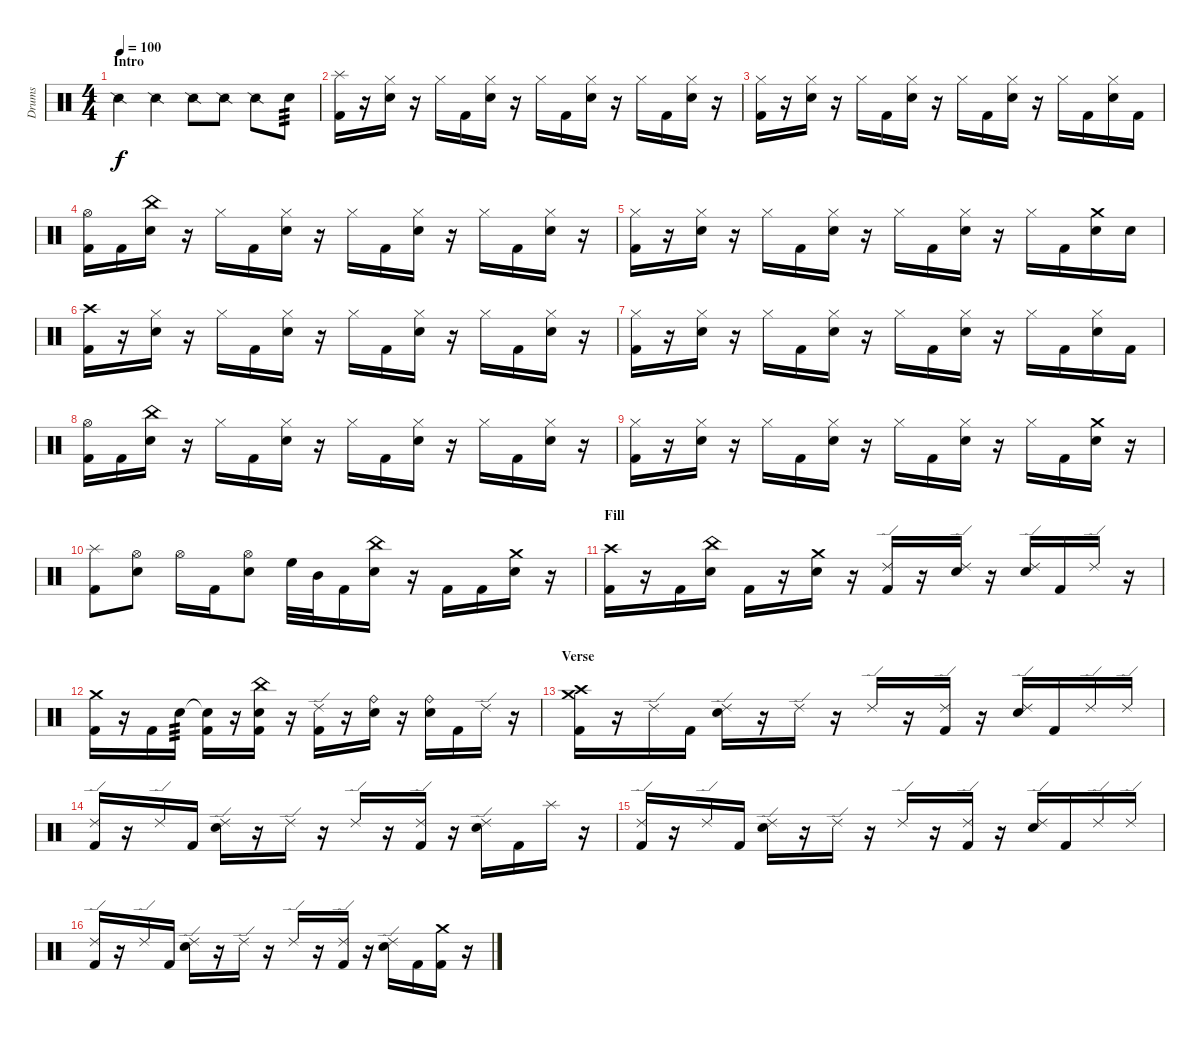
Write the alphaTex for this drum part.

\track ("Drums" "Drums") {instrument percussion}
\staff {score}
\articulation defaults
\ts (4 4)
\section ("" "Intro")
\tempo 100
\clef neutral
\ks c "Snare (side stick) 2".4{dy f} "Snare (side stick) 2".4 "Snare (side stick) 2".8 "Snare (side stick) 2".8 "Snare (side stick) 2".8 "Electric Snare (hit)".8{tp 3}
|
("Splash (hit)" "Kick (hit) 2").16 r.16 ("Hi-Hat (closed)" "Electric Snare (hit)").16 r.16 "Hi-Hat (closed)".16 "Kick (hit) 2".16 ("Hi-Hat (closed)" "Electric Snare (hit)").16 r.16 "Hi-Hat (closed)".16 "Kick (hit) 2".16 ("Hi-Hat (closed)" "Electric Snare (hit)").16 r.16 "Hi-Hat (closed)".16 "Kick (hit) 2".16 ("Hi-Hat (closed)" "Electric Snare (hit)").16 r.16 |
("Hi-Hat (closed)" "Kick (hit) 2").16 r.16 ("Hi-Hat (closed)" "Electric Snare (hit)").16 r.16 "Hi-Hat (closed)".16 "Kick (hit) 2".16 ("Hi-Hat (closed)" "Electric Snare (hit)").16 r.16 "Hi-Hat (closed)".16 "Kick (hit) 2".16 ("Hi-Hat (closed)" "Electric Snare (hit)").16 r.16 "Hi-Hat (closed)".16 "Kick (hit) 2".16 ("Hi-Hat (closed)" "Electric Snare (hit)").16 "Kick (hit) 2".16 |
("Hi-Hat (open)" "Kick (hit) 2").16 "Kick (hit) 2".16 ("China (hit)" "Electric Snare (hit)").16 r.16 "Hi-Hat (closed)".16 "Kick (hit) 2".16 ("Hi-Hat (closed)" "Electric Snare (hit)").16 r.16 "Hi-Hat (closed)".16 "Kick (hit) 2".16 ("Hi-Hat (closed)" "Electric Snare (hit)").16 r.16 "Hi-Hat (closed)".16 "Kick (hit) 2".16 ("Hi-Hat (closed)" "Electric Snare (hit)").16 r.16 |
("Hi-Hat (closed)" "Kick (hit) 2").16 r.16 ("Hi-Hat (closed)" "Electric Snare (hit)").16 r.16 "Hi-Hat (closed)".16 "Kick (hit) 2".16 ("Hi-Hat (closed)" "Electric Snare (hit)").16 r.16 "Hi-Hat (closed)".16 "Kick (hit) 2".16 ("Hi-Hat (closed)" "Electric Snare (hit)").16 r.16 "Hi-Hat (closed)".16 "Kick (hit) 2".16 ("Crash medium (hit)" "Electric Snare (hit)").16 "Electric Snare (hit)".16 |
("Crash high (hit)" "Kick (hit) 2").16 r.16 ("Hi-Hat (closed)" "Electric Snare (hit)").16 r.16 "Hi-Hat (closed)".16 "Kick (hit) 2".16 ("Hi-Hat (closed)" "Electric Snare (hit)").16 r.16 "Hi-Hat (closed)".16 "Kick (hit) 2".16 ("Hi-Hat (closed)" "Electric Snare (hit)").16 r.16 "Hi-Hat (closed)".16 "Kick (hit) 2".16 ("Hi-Hat (closed)" "Electric Snare (hit)").16 r.16 |
("Hi-Hat (closed)" "Kick (hit) 2").16 r.16 ("Hi-Hat (closed)" "Electric Snare (hit)").16 r.16 "Hi-Hat (closed)".16 "Kick (hit) 2".16 ("Hi-Hat (closed)" "Electric Snare (hit)").16 r.16 "Hi-Hat (closed)".16 "Kick (hit) 2".16 ("Hi-Hat (closed)" "Electric Snare (hit)").16 r.16 "Hi-Hat (closed)".16 "Kick (hit) 2".16 ("Hi-Hat (closed)" "Electric Snare (hit)").16 "Kick (hit) 2".16 |
("Hi-Hat (open)" "Kick (hit) 2").16 "Kick (hit) 2".16 ("China (hit)" "Electric Snare (hit)").16 r.16 "Hi-Hat (closed)".16 "Kick (hit) 2".16 ("Hi-Hat (closed)" "Electric Snare (hit)").16 r.16 "Hi-Hat (closed)".16 "Kick (hit) 2".16 ("Hi-Hat (closed)" "Electric Snare (hit)").16 r.16 "Hi-Hat (closed)".16 "Kick (hit) 2".16 ("Hi-Hat (closed)" "Electric Snare (hit)").16 r.16 |
("Hi-Hat (closed)" "Kick (hit) 2").16 r.16 ("Hi-Hat (closed)" "Electric Snare (hit)").16 r.16 "Hi-Hat (closed)".16 "Kick (hit) 2".16 ("Hi-Hat (closed)" "Electric Snare (hit)").16 r.16 "Hi-Hat (closed)".16 "Kick (hit) 2".16 ("Hi-Hat (closed)" "Electric Snare (hit)").16 r.16 "Hi-Hat (closed)".16 "Kick (hit) 2".16 ("Crash medium (hit)" "Electric Snare (hit)").16 r.16 |
("Splash (hit)" "Kick (hit) 2").8 ("Hi-Hat (open)" "Electric Snare (hit)").8 "Hi-Hat (open)".16 "Kick (hit) 2".16 ("Hi-Hat (open)" "Electric Snare (hit)").8 "High Floor Tom (hit)".32 "Mid Tom (hit)".32 "Kick (hit) 2".16 ("China (hit)" "Electric Snare (hit)").16 r.16 "Kick (hit) 2".16 "Kick (hit) 2".16 ("Crash medium (hit)" "Electric Snare (hit)").16 r.16 |
\section ("" "Fill")
("Crash high (hit)" "Kick (hit) 2").16 r.16 "Kick (hit) 2".16 ("China (hit)" "Electric Snare (hit)").16 "Kick (hit) 2".16 r.16 ("Crash medium (hit)" "Electric Snare (hit)").16 r.16 ("Ride (edge) 2" "Kick (hit) 2").16 r.16 ("Ride (edge) 2" "Electric Snare (hit)").16 r.16 ("Ride (edge) 2" "Electric Snare (hit)").16 "Kick (hit) 2".16 "Ride (edge) 2".16 r.16 |
("Crash medium (hit)" "Kick (hit) 2").16 r.16 "Kick (hit) 2".16 "Electric Snare (hit)".16{tp 3} ("Snare (hit)"{t} "Kick (hit) 2").16 r.16 ("China (hit)" "Electric Snare (hit)" "Kick (hit) 2").16 r.16 ("Ride (edge) 2" "Kick (hit) 2").16 r.16 ("Ride (bell)" "Electric Snare (hit)").16 r.16 ("Ride (bell)" "Electric Snare (hit)").16 "Kick (hit) 2".16 "Ride (edge) 2".16 r.16 |
\section ("" "Verse")
("Crash high (hit)" "Crash medium (hit)" "Kick (hit) 2").16 r.16 "Ride (edge) 2".16 "Kick (hit) 2".16 ("Ride (edge) 2" "Electric Snare (hit)").16 r.16 "Ride (edge) 2".16 r.16 "Ride (edge) 2".16 r.16 ("Ride (edge) 2" "Kick (hit) 2").16 r.16 ("Ride (edge) 2" "Electric Snare (hit)").16 "Kick (hit) 2".16 "Ride (edge) 2".16 "Ride (edge) 2".16 |
("Ride (edge) 2" "Kick (hit) 2").16 r.16 "Ride (edge) 2".16 "Kick (hit) 2".16 ("Ride (edge) 2" "Electric Snare (hit)").16 r.16 "Ride (edge) 2".16 r.16 "Ride (edge) 2".16 r.16 ("Ride (edge) 2" "Kick (hit) 2").16 r.16 ("Ride (edge) 2" "Electric Snare (hit)").16 "Kick (hit) 2".16 "Splash (hit)".16 r.16 |
("Ride (edge) 2" "Kick (hit) 2").16 r.16 "Ride (edge) 2".16 "Kick (hit) 2".16 ("Ride (edge) 2" "Electric Snare (hit)").16 r.16 "Ride (edge) 2".16 r.16 "Ride (edge) 2".16 r.16 ("Ride (edge) 2" "Kick (hit) 2").16 r.16 ("Ride (edge) 2" "Electric Snare (hit)").16 "Kick (hit) 2".16 "Ride (edge) 2".16 "Ride (edge) 2".16 |
("Ride (edge) 2" "Kick (hit) 2").16 r.16 "Ride (edge) 2".16 "Kick (hit) 2".16 ("Ride (edge) 2" "Electric Snare (hit)").16 r.16 "Ride (edge) 2".16 r.16 "Ride (edge) 2".16 r.16 ("Ride (edge) 2" "Kick (hit) 2").16 r.16 ("Ride (edge) 2" "Electric Snare (hit)").16 "Kick (hit) 2".16 ("Crash medium (hit)" "Kick (hit) 2").16 r.16
